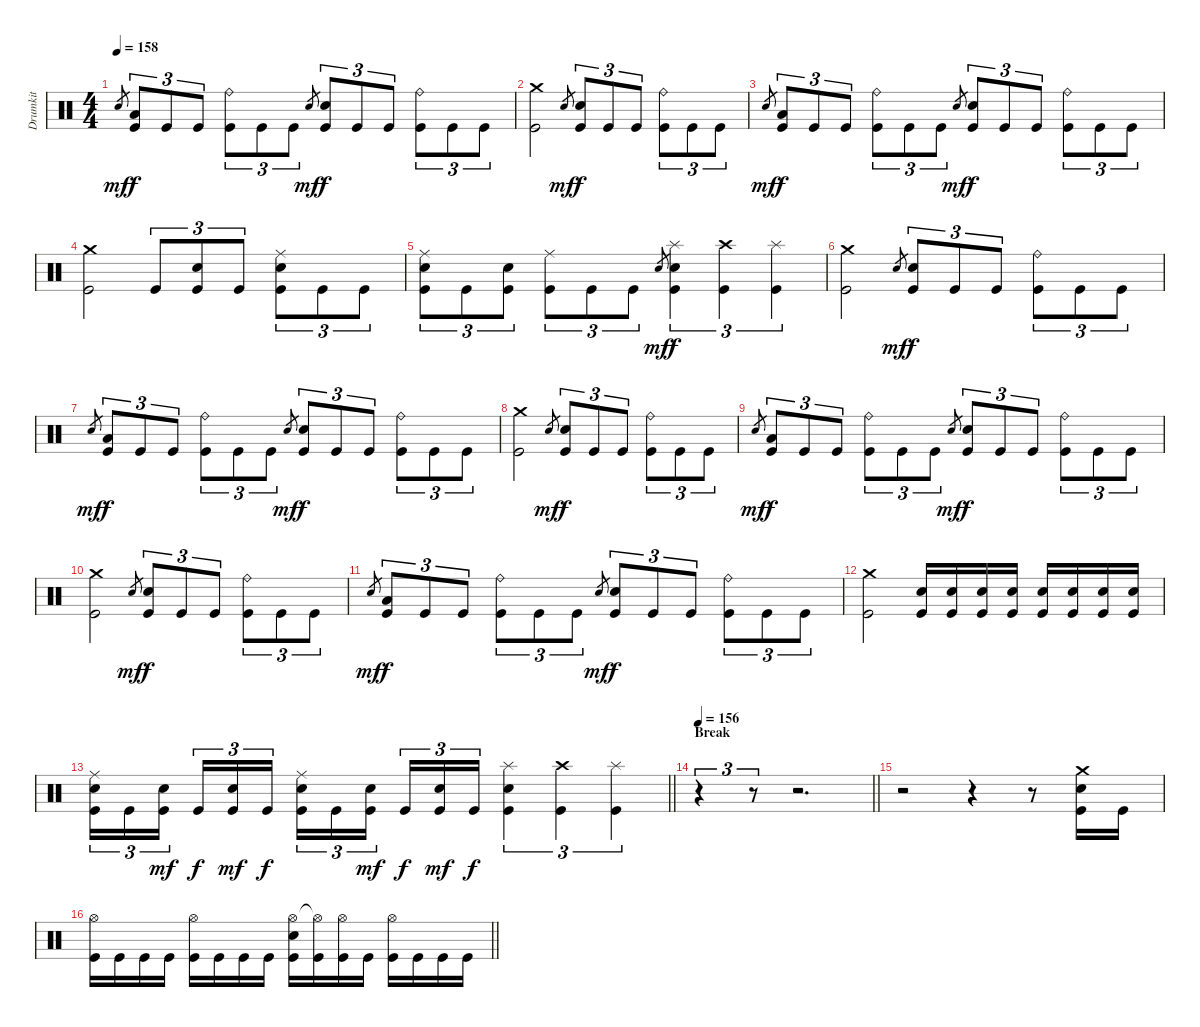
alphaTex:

\track ("Drumkit" "Drumkit") {instrument percussion}
\staff {score}
\articulation defaults
\ts (4 4)
\tempo 158
\clef neutral
\ks c "Snare (hit)".8{gr dy mf}
("Low Tom (hit)" "Kick (hit)").8{tu (3 2) dy f} "Kick (hit)".8{tu (3 2)} "Kick (hit)".8{tu (3 2)} ("Ride (bell)" "Kick (hit)").8{tu (3 2)} "Kick (hit)".8{tu (3 2)} "Kick (hit)".8{tu (3 2)} "Snare (hit)".8{gr dy mf} ("Snare (hit) 2" "Kick (hit)").8{tu (3 2) dy f} "Kick (hit)".8{tu (3 2)} "Kick (hit)".8{tu (3 2)} ("Ride (bell)" "Kick (hit)").8{tu (3 2)} "Kick (hit)".8{tu (3 2)} "Kick (hit)".8{tu (3 2)} |
("Crash medium (hit)" "Kick (hit)").2 "Snare (hit)".8{gr dy mf} ("Snare (hit) 2" "Kick (hit)").8{tu (3 2) dy f} "Kick (hit)".8{tu (3 2)} "Kick (hit)".8{tu (3 2)} ("Ride (bell)" "Kick (hit)").8{tu (3 2)} "Kick (hit)".8{tu (3 2)} "Kick (hit)".8{tu (3 2)} |
"Snare (hit)".8{gr dy mf} ("Low Tom (hit)" "Kick (hit)").8{tu (3 2) dy f} "Kick (hit)".8{tu (3 2)} "Kick (hit)".8{tu (3 2)} ("Ride (bell)" "Kick (hit)").8{tu (3 2)} "Kick (hit)".8{tu (3 2)} "Kick (hit)".8{tu (3 2)} "Snare (hit)".8{gr dy mf} ("Snare (hit) 2" "Kick (hit)").8{tu (3 2) dy f} "Kick (hit)".8{tu (3 2)} "Kick (hit)".8{tu (3 2)} ("Ride (bell)" "Kick (hit)").8{tu (3 2)} "Kick (hit)".8{tu (3 2)} "Kick (hit)".8{tu (3 2)} |
("Crash medium (hit)" "Kick (hit)").2 "Kick (hit)".8{tu (3 2)} ("Snare (hit) 2" "Kick (hit)").8{tu (3 2)} "Kick (hit)".8{tu (3 2)} ("Ride (middle)" "Snare (hit) 2" "Kick (hit)").8{tu (3 2)} "Kick (hit)".8{tu (3 2)} "Kick (hit)".8{tu (3 2)} |
("Ride (middle)" "Snare (hit) 2" "Kick (hit)").8{tu (3 2)} "Kick (hit)".8{tu (3 2)} ("Snare (hit) 2" "Kick (hit)").8{tu (3 2)} ("Ride (middle)" "Kick (hit)").8{tu (3 2)} "Kick (hit)".8{tu (3 2)} "Kick (hit)".8{tu (3 2)} "Snare (hit)".8{gr dy mf} ("Splash (hit)" "Snare (hit) 2" "Kick (hit)").4{tu (3 2) dy f} ("Crash high (hit)" "Kick (hit)").4{tu (3 2)} ("Splash (hit)" "Kick (hit)").4{tu (3 2)} |
("Crash medium (hit)" "Kick (hit)").2 "Snare (hit)".8{gr dy mf} ("Snare (hit) 2" "Kick (hit)").8{tu (3 2) dy f} "Kick (hit)".8{tu (3 2)} "Kick (hit)".8{tu (3 2)} ("Ride (bell)" "Kick (hit)").8{tu (3 2)} "Kick (hit)".8{tu (3 2)} "Kick (hit)".8{tu (3 2)} |
"Snare (hit)".8{gr dy mf} ("Low Tom (hit)" "Kick (hit)").8{tu (3 2) dy f} "Kick (hit)".8{tu (3 2)} "Kick (hit)".8{tu (3 2)} ("Ride (bell)" "Kick (hit)").8{tu (3 2)} "Kick (hit)".8{tu (3 2)} "Kick (hit)".8{tu (3 2)} "Snare (hit)".8{gr dy mf} ("Snare (hit) 2" "Kick (hit)").8{tu (3 2) dy f} "Kick (hit)".8{tu (3 2)} "Kick (hit)".8{tu (3 2)} ("Ride (bell)" "Kick (hit)").8{tu (3 2)} "Kick (hit)".8{tu (3 2)} "Kick (hit)".8{tu (3 2)} |
("Crash medium (hit)" "Kick (hit)").2 "Snare (hit)".8{gr dy mf} ("Snare (hit) 2" "Kick (hit)").8{tu (3 2) dy f} "Kick (hit)".8{tu (3 2)} "Kick (hit)".8{tu (3 2)} ("Ride (bell)" "Kick (hit)").8{tu (3 2)} "Kick (hit)".8{tu (3 2)} "Kick (hit)".8{tu (3 2)} |
"Snare (hit)".8{gr dy mf} ("Low Tom (hit)" "Kick (hit)").8{tu (3 2) dy f} "Kick (hit)".8{tu (3 2)} "Kick (hit)".8{tu (3 2)} ("Ride (bell)" "Kick (hit)").8{tu (3 2)} "Kick (hit)".8{tu (3 2)} "Kick (hit)".8{tu (3 2)} "Snare (hit)".8{gr dy mf} ("Snare (hit) 2" "Kick (hit)").8{tu (3 2) dy f} "Kick (hit)".8{tu (3 2)} "Kick (hit)".8{tu (3 2)} ("Ride (bell)" "Kick (hit)").8{tu (3 2)} "Kick (hit)".8{tu (3 2)} "Kick (hit)".8{tu (3 2)} |
("Crash medium (hit)" "Kick (hit)").2 "Snare (hit)".8{gr dy mf} ("Snare (hit) 2" "Kick (hit)").8{tu (3 2) dy f} "Kick (hit)".8{tu (3 2)} "Kick (hit)".8{tu (3 2)} ("Ride (bell)" "Kick (hit)").8{tu (3 2)} "Kick (hit)".8{tu (3 2)} "Kick (hit)".8{tu (3 2)} |
"Snare (hit)".8{gr dy mf} ("Low Tom (hit)" "Kick (hit)").8{tu (3 2) dy f} "Kick (hit)".8{tu (3 2)} "Kick (hit)".8{tu (3 2)} ("Ride (bell)" "Kick (hit)").8{tu (3 2)} "Kick (hit)".8{tu (3 2)} "Kick (hit)".8{tu (3 2)} "Snare (hit)".8{gr dy mf} ("Snare (hit) 2" "Kick (hit)").8{tu (3 2) dy f} "Kick (hit)".8{tu (3 2)} "Kick (hit)".8{tu (3 2)} ("Ride (bell)" "Kick (hit)").8{tu (3 2)} "Kick (hit)".8{tu (3 2)} "Kick (hit)".8{tu (3 2)} |
("Crash medium (hit)" "Kick (hit)").2 ("Snare (hit) 2" "Kick (hit)").16 ("Snare (hit) 2" "Kick (hit)").16 ("Snare (hit) 2" "Kick (hit)").16 ("Snare (hit) 2" "Kick (hit)").16 ("Snare (hit) 2" "Kick (hit)").16 ("Snare (hit) 2" "Kick (hit)").16 ("Snare (hit) 2" "Kick (hit)").16 ("Snare (hit) 2" "Kick (hit)").16 |
\barLineRight lightlight
("Ride (middle)" "Snare (hit) 2" "Kick (hit)").16{tu (3 2)} "Kick (hit)".16{tu (3 2)} ("Snare (hit) 2" "Kick (hit)").16{tu (3 2) dy mf} "Kick (hit)".16{tu (3 2) dy f} ("Snare (hit) 2" "Kick (hit)").16{tu (3 2) dy mf} "Kick (hit)".16{tu (3 2) dy f} ("Ride (middle)" "Snare (hit) 2" "Kick (hit)").16{tu (3 2)} "Kick (hit)".16{tu (3 2)} ("Snare (hit) 2" "Kick (hit)").16{tu (3 2) dy mf} "Kick (hit)".16{tu (3 2) dy f} ("Snare (hit) 2" "Kick (hit)").16{tu (3 2) dy mf} "Kick (hit)".16{tu (3 2) dy f} ("Splash (hit)" "Snare (hit) 2" "Kick (hit)").4{tu (3 2)} ("Crash high (hit)" "Kick (hit)").4{tu (3 2)} ("Splash (hit)" "Kick (hit)").4{tu (3 2)} |
\section ("" "Break")
\tempo 156
\barLineRight lightlight
r.4{tu (3 2)} r.8{tu (3 2)} r.2{d} |
r.2 r.4 r.8 ("Crash medium (hit)" "Snare (hit) 2" "Kick (hit)").16 "Kick (hit)".16 |
\barLineRight lightlight
("Hi-Hat (open)" "Kick (hit)").16 "Kick (hit)".16 "Kick (hit)".16 "Kick (hit)".16 ("Hi-Hat (open)" "Kick (hit)").16 "Kick (hit)".16 "Kick (hit)".16 "Kick (hit)".16 ("Hi-Hat (open)" "Snare (hit) 2" "Kick (hit)").16 ("Hi-Hat (open)"{t} "Kick (hit)").16 ("Hi-Hat (open)" "Kick (hit)").16 "Kick (hit)".16 ("Hi-Hat (open)" "Kick (hit)").16 "Kick (hit)".16 "Kick (hit)".16 "Kick (hit)".16
